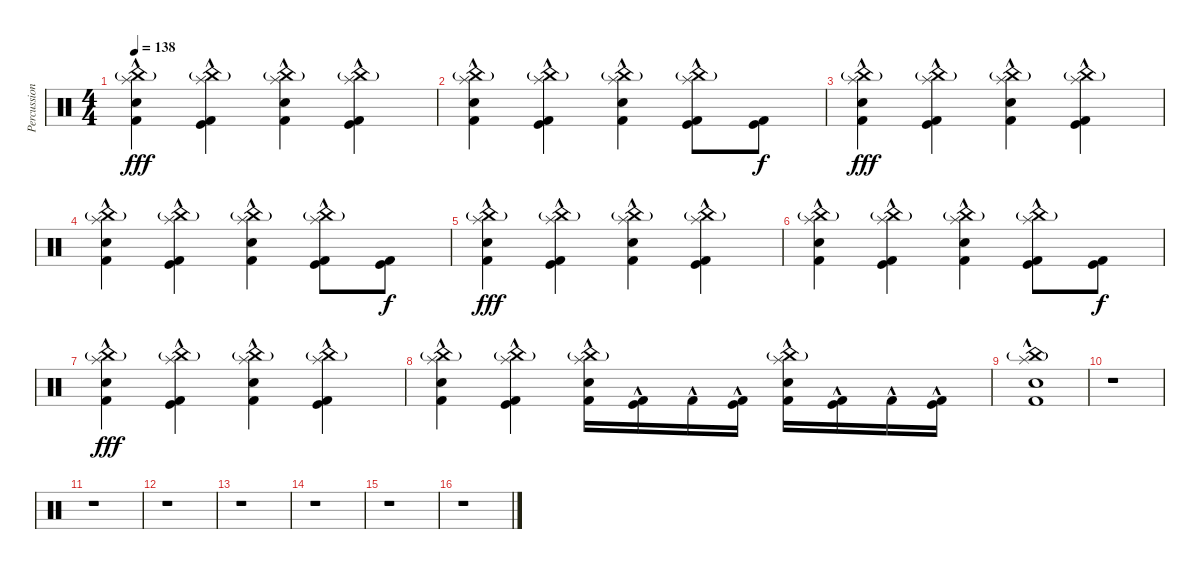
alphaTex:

\track ("Percussions" "Percussion") {instrument percussion}
\staff {score}
\articulation defaults
\ts (4 4)
\tempo 138
\clef neutral
\ks c
("Splash (hit)" "China (hit)"{g} "Snare (hit) 2" "Kick (hit) 2"{hac}).4{dy fff} ("Splash (hit)" "China (hit)"{g} "Kick (hit)" "Kick (hit) 2"{hac}).4 ("Splash (hit)" "China (hit)"{g} "Snare (hit) 2" "Kick (hit) 2"{hac}).4 ("Splash (hit)" "China (hit)"{g} "Kick (hit)" "Kick (hit) 2"{hac}).4 |
("Splash (hit)" "China (hit)"{g} "Snare (hit) 2" "Kick (hit) 2"{hac}).4 ("Splash (hit)" "China (hit)"{g} "Kick (hit)" "Kick (hit) 2"{hac}).4 ("Splash (hit)" "China (hit)"{g} "Snare (hit) 2" "Kick (hit) 2"{hac}).4 ("Splash (hit)" "China (hit)"{g} "Kick (hit)" "Kick (hit) 2"{hac}).8 ("Kick (hit)" "Kick (hit) 2").8{dy f} |
("Splash (hit)" "China (hit)"{g} "Snare (hit) 2" "Kick (hit) 2"{hac}).4{dy fff} ("Splash (hit)" "China (hit)"{g} "Kick (hit)" "Kick (hit) 2"{hac}).4 ("Splash (hit)" "China (hit)"{g} "Snare (hit) 2" "Kick (hit) 2"{hac}).4 ("Splash (hit)" "China (hit)"{g} "Kick (hit)" "Kick (hit) 2"{hac}).4 |
("Splash (hit)" "China (hit)"{g} "Snare (hit) 2" "Kick (hit) 2"{hac}).4 ("Splash (hit)" "China (hit)"{g} "Kick (hit)" "Kick (hit) 2"{hac}).4 ("Splash (hit)" "China (hit)"{g} "Snare (hit) 2" "Kick (hit) 2"{hac}).4 ("Splash (hit)" "China (hit)"{g} "Kick (hit)" "Kick (hit) 2"{hac}).8 ("Kick (hit)" "Kick (hit) 2").8{dy f} |
("Splash (hit)" "China (hit)"{g} "Snare (hit) 2" "Kick (hit) 2"{hac}).4{dy fff} ("Splash (hit)" "China (hit)"{g} "Kick (hit)" "Kick (hit) 2"{hac}).4 ("Splash (hit)" "China (hit)"{g} "Snare (hit) 2" "Kick (hit) 2"{hac}).4 ("Splash (hit)" "China (hit)"{g} "Kick (hit)" "Kick (hit) 2"{hac}).4 |
("Splash (hit)" "China (hit)"{g} "Snare (hit) 2" "Kick (hit) 2"{hac}).4 ("Splash (hit)" "China (hit)"{g} "Kick (hit)" "Kick (hit) 2"{hac}).4 ("Splash (hit)" "China (hit)"{g} "Snare (hit) 2" "Kick (hit) 2"{hac}).4 ("Splash (hit)" "China (hit)"{g} "Kick (hit)" "Kick (hit) 2"{hac}).8 ("Kick (hit)" "Kick (hit) 2").8{dy f} |
("Splash (hit)" "China (hit)"{g} "Snare (hit) 2" "Kick (hit) 2"{hac}).4{dy fff} ("Splash (hit)" "China (hit)"{g} "Kick (hit)" "Kick (hit) 2"{hac}).4 ("Splash (hit)" "China (hit)"{g} "Snare (hit) 2" "Kick (hit) 2"{hac}).4 ("Splash (hit)" "China (hit)"{g} "Kick (hit)" "Kick (hit) 2"{hac}).4 |
("Splash (hit)" "China (hit)"{g} "Snare (hit) 2" "Kick (hit) 2"{hac}).4 ("Splash (hit)" "China (hit)"{g} "Kick (hit)" "Kick (hit) 2"{hac}).4 ("Splash (hit)" "China (hit)"{g} "Snare (hit) 2" "Kick (hit) 2"{hac}).16 ("Kick (hit)" "Kick (hit) 2"{hac}).16 "Kick (hit) 2"{hac}.16 ("Kick (hit)" "Kick (hit) 2"{hac}).16 ("Splash (hit)" "China (hit)"{g} "Snare (hit) 2" "Kick (hit) 2"{hac}).16 ("Kick (hit)" "Kick (hit) 2"{hac}).16 "Kick (hit) 2"{hac}.16 ("Kick (hit)" "Kick (hit) 2"{hac}).16 |
("Splash (hit)" "China (hit)"{g} "Snare (hit) 2" "Kick (hit) 2"{hac}).1 |
r.1 |
r.1 |
r.1 |
r.1 |
r.1 |
r.1 |
r.1
